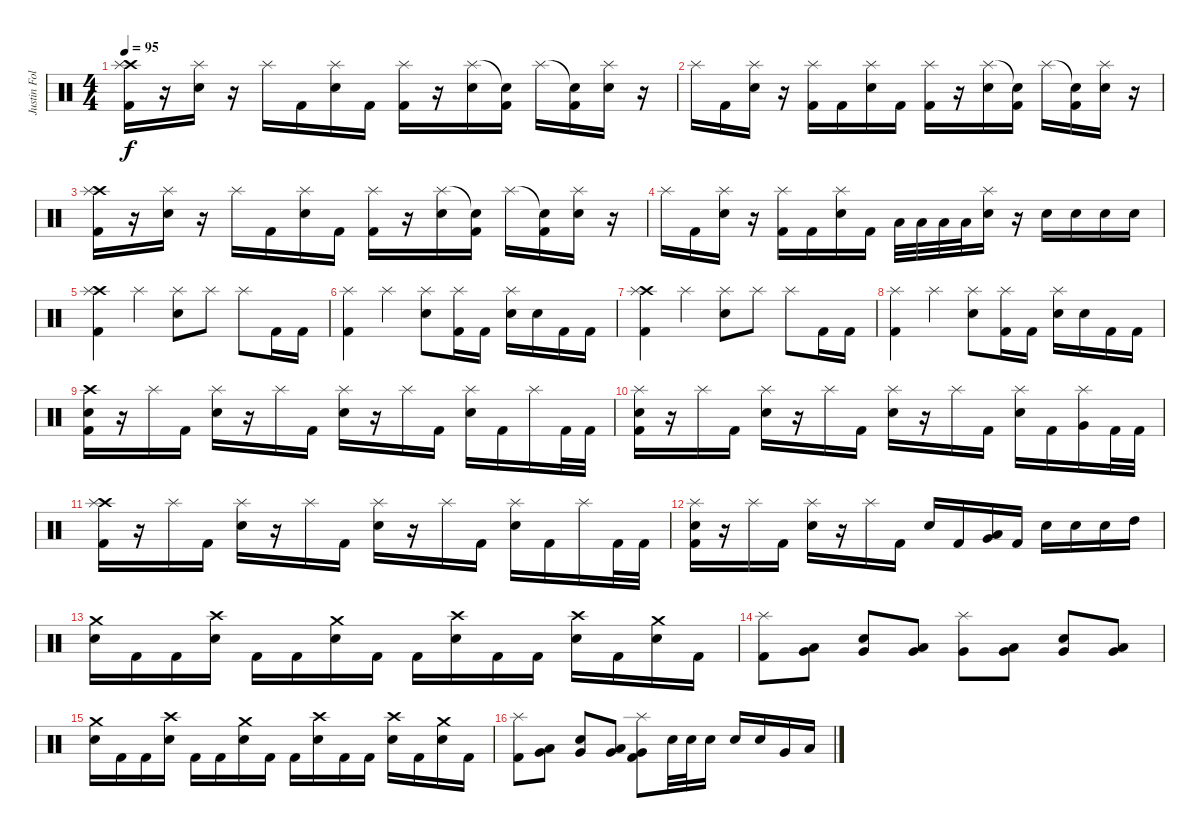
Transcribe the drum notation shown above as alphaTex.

\track ("Justin Foley" "Justin Fol") {instrument percussion}
\staff {score}
\articulation defaults
\ts (4 4)
\tempo 95
\clef neutral
\ks c
("Crash high (hit)" "Splash (hit)" "Kick (hit) 2").16{dy f} r.16 ("Splash (hit)" "Snare (hit) 2").16 r.16 "Splash (hit)".16 "Kick (hit) 2".16 ("Splash (hit)" "Snare (hit) 2").16 "Kick (hit) 2".16 ("Splash (hit)" "Kick (hit) 2").16 r.16 ("Splash (hit)" "Snare (hit) 2").16 ("Snare (hit)"{t} "Kick (hit) 2").16 "Splash (hit)".16 ("Snare (hit)"{t} "Kick (hit) 2").16 ("Splash (hit)" "Snare (hit) 2").16 r.16 |
"Splash (hit)".16 "Kick (hit) 2".16 ("Splash (hit)" "Snare (hit) 2").16 r.16 ("Splash (hit)" "Kick (hit) 2").16 "Kick (hit) 2".16 ("Splash (hit)" "Snare (hit) 2").16 "Kick (hit) 2".16 ("Splash (hit)" "Kick (hit) 2").16 r.16 ("Splash (hit)" "Snare (hit) 2").16 ("Snare (hit)"{t} "Kick (hit) 2").16 "Splash (hit)".16 ("Snare (hit)"{t} "Kick (hit) 2").16 ("Splash (hit)" "Snare (hit) 2").16 r.16 |
("Crash high (hit)" "Splash (hit)" "Kick (hit) 2").16 r.16 ("Splash (hit)" "Snare (hit) 2").16 r.16 "Splash (hit)".16 "Kick (hit) 2".16 ("Splash (hit)" "Snare (hit) 2").16 "Kick (hit) 2".16 ("Splash (hit)" "Kick (hit) 2").16 r.16 ("Splash (hit)" "Snare (hit) 2").16 ("Snare (hit)"{t} "Kick (hit) 2").16 "Splash (hit)".16 ("Snare (hit)"{t} "Kick (hit) 2").16 ("Splash (hit)" "Snare (hit) 2").16 r.16 |
"Splash (hit)".16 "Kick (hit) 2".16 ("Splash (hit)" "Snare (hit) 2").16 r.16 ("Splash (hit)" "Kick (hit) 2").16 "Kick (hit) 2".16 ("Splash (hit)" "Snare (hit) 2").16 "Kick (hit) 2".16 "Low Floor Tom (hit)".32 "Low Floor Tom (hit)".32 "Low Floor Tom (hit)".32 "Low Floor Tom (hit)".32 ("Splash (hit)" "Snare (hit) 2").16 r.16 "Snare (hit) 2".16 "Snare (hit) 2".16 "Snare (hit) 2".16 "Snare (hit) 2".16 |
("Crash high (hit)" "Splash (hit)" "Kick (hit) 2").4 "Splash (hit)".4 ("Splash (hit)" "Snare (hit) 2").8 "Splash (hit)".8 "Splash (hit)".8 "Kick (hit) 2".16 "Kick (hit) 2".16 |
("Splash (hit)" "Kick (hit) 2").4 "Splash (hit)".4 ("Splash (hit)" "Snare (hit) 2").8 ("Splash (hit)" "Kick (hit) 2").16 "Kick (hit) 2".16 ("Splash (hit)" "Snare (hit) 2").16 "Snare (hit) 2".16 "Kick (hit) 2".16 "Kick (hit) 2".16 |
("Crash high (hit)" "Splash (hit)" "Kick (hit) 2").4 "Splash (hit)".4 ("Splash (hit)" "Snare (hit) 2").8 "Splash (hit)".8 "Splash (hit)".8 "Kick (hit) 2".16 "Kick (hit) 2".16 |
("Splash (hit)" "Kick (hit) 2").4 "Splash (hit)".4 ("Splash (hit)" "Snare (hit) 2").8 ("Splash (hit)" "Kick (hit) 2").16 "Kick (hit) 2".16 ("Splash (hit)" "Snare (hit) 2").16 "Snare (hit) 2".16 "Kick (hit) 2".16 "Kick (hit) 2".16 |
("Crash high (hit)" "Snare (hit) 2" "Kick (hit) 2").16 r.16 "Splash (hit)".16 "Kick (hit) 2".16 ("Splash (hit)" "Snare (hit) 2").16 r.16 "Splash (hit)".16 "Kick (hit) 2".16 ("Splash (hit)" "Snare (hit) 2").16 r.16 "Splash (hit)".16 "Kick (hit) 2".16 ("Splash (hit)" "Snare (hit) 2").16 "Kick (hit) 2".16 "Splash (hit)".16 "Kick (hit) 2".32 "Kick (hit) 2".32 |
("Splash (hit)" "Snare (hit) 2" "Kick (hit) 2").16 r.16 "Splash (hit)".16 "Kick (hit) 2".16 ("Splash (hit)" "Snare (hit) 2").16 r.16 "Splash (hit)".16 "Kick (hit) 2".16 ("Splash (hit)" "Snare (hit) 2").16 r.16 "Splash (hit)".16 "Kick (hit) 2".16 ("Splash (hit)" "Snare (hit) 2").16 "Kick (hit) 2".16 ("Splash (hit)" "Very Low Tom (hit)").16 "Kick (hit) 2".32 "Kick (hit) 2".32 |
("Crash high (hit)" "Splash (hit)" "Kick (hit) 2").16 r.16 "Splash (hit)".16 "Kick (hit) 2".16 ("Splash (hit)" "Snare (hit) 2").16 r.16 "Splash (hit)".16 "Kick (hit) 2".16 ("Splash (hit)" "Snare (hit) 2").16 r.16 "Splash (hit)".16 "Kick (hit) 2".16 ("Splash (hit)" "Snare (hit) 2").16 "Kick (hit) 2".16 "Splash (hit)".16 "Kick (hit) 2".32 "Kick (hit) 2".32 |
("Splash (hit)" "Snare (hit) 2" "Kick (hit) 2").16 r.16 "Splash (hit)".16 "Kick (hit) 2".16 ("Splash (hit)" "Snare (hit) 2").16 r.16 "Splash (hit)".16 "Kick (hit) 2".16 "Snare (hit) 2".16 "Kick (hit) 2".16 ("Low Floor Tom (hit)" "Very Low Tom (hit)").16 "Kick (hit) 2".16 "Snare (hit) 2".16 "Snare (hit) 2".16 "Snare (hit) 2".16 "High Tom (hit)".16 |
("Crash medium (hit)" "Snare (hit) 2").16 "Kick (hit) 2".16 "Kick (hit) 2".16 ("Crash high (hit)" "Snare (hit) 2").16 "Kick (hit) 2".16 "Kick (hit) 2".16 ("Crash medium (hit)" "Snare (hit) 2").16 "Kick (hit) 2".16 "Kick (hit) 2".16 ("Crash high (hit)" "Snare (hit) 2").16 "Kick (hit) 2".16 "Kick (hit) 2".16 ("Crash high (hit)" "Snare (hit) 2").16 "Kick (hit) 2".16 ("Crash medium (hit)" "Snare (hit) 2").16 "Kick (hit) 2".16 |
("Splash (hit)" "Kick (hit) 2").8 ("Low Floor Tom (hit)" "Very Low Tom (hit)").8 ("Snare (hit) 2" "Very Low Tom (hit)").8 ("Low Floor Tom (hit)" "Very Low Tom (hit)").8 ("Splash (hit)" "Very Low Tom (hit)").8 ("Low Floor Tom (hit)" "Very Low Tom (hit)").8 ("Snare (hit) 2" "Very Low Tom (hit)").8 ("Low Floor Tom (hit)" "Very Low Tom (hit)").8 |
("Crash medium (hit)" "Snare (hit) 2").16 "Kick (hit) 2".16 "Kick (hit) 2".16 ("Crash high (hit)" "Snare (hit) 2").16 "Kick (hit) 2".16 "Kick (hit) 2".16 ("Crash medium (hit)" "Snare (hit) 2").16 "Kick (hit) 2".16 "Kick (hit) 2".16 ("Crash high (hit)" "Snare (hit) 2").16 "Kick (hit) 2".16 "Kick (hit) 2".16 ("Crash high (hit)" "Snare (hit) 2").16 "Kick (hit) 2".16 ("Crash medium (hit)" "Snare (hit) 2").16 "Kick (hit) 2".16 |
("Splash (hit)" "Kick (hit) 2").8 ("Low Floor Tom (hit)" "Very Low Tom (hit)").8 ("Snare (hit) 2" "Very Low Tom (hit)").8 ("Low Floor Tom (hit)" "Very Low Tom (hit)").8 ("Splash (hit)" "Very Low Tom (hit)" "Kick (hit) 2").8 "Snare (hit) 2".32 "Snare (hit) 2".32 "Snare (hit) 2".16 "Snare (hit) 2".16 "Snare (hit) 2".16 "Very Low Tom (hit)".16 "Low Floor Tom (hit)".16
